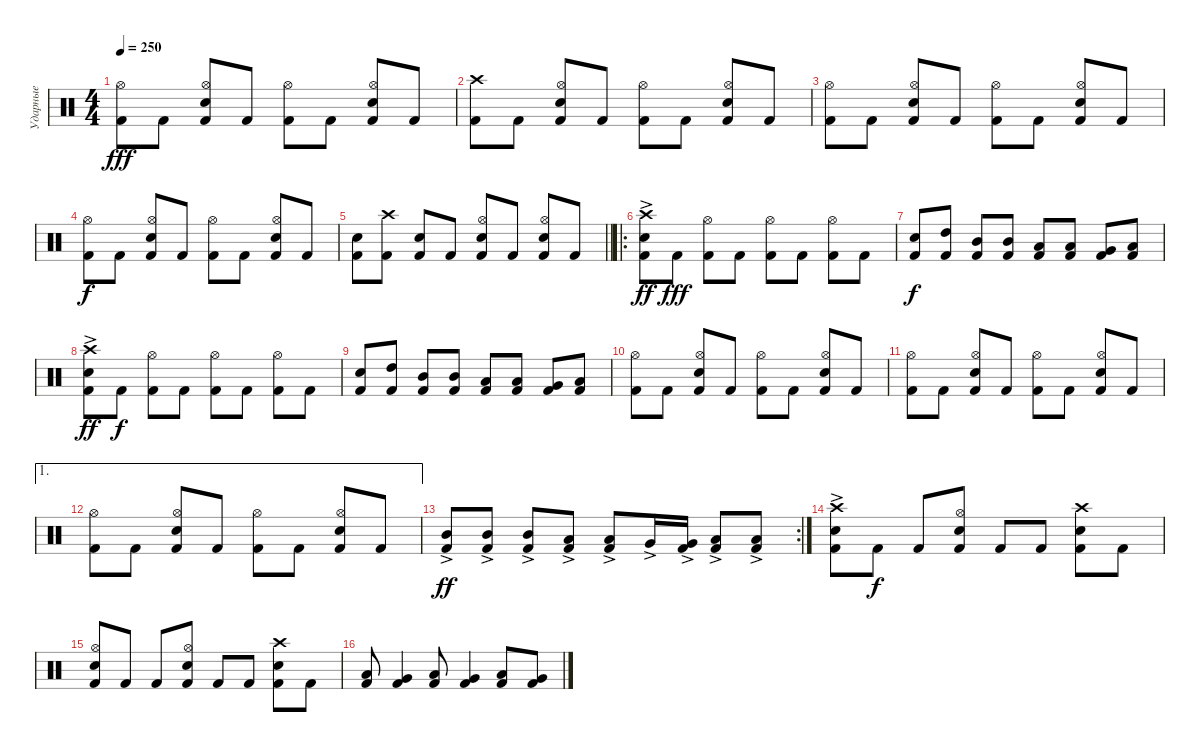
\track ("Ударные" "Ударные") {instrument percussion}
\staff {score}
\articulation defaults
\ts (4 4)
\tempo 250
\clef neutral
\ks c
("Kick (hit) 2" "Hi-Hat (open)").8{dy fff} "Kick (hit) 2".8 ("Kick (hit) 2" "Snare (hit) 2" "Hi-Hat (open)").8 "Kick (hit) 2".8 ("Kick (hit) 2" "Hi-Hat (open)").8 "Kick (hit) 2".8 ("Kick (hit) 2" "Snare (hit) 2" "Hi-Hat (open)").8 "Kick (hit) 2".8 |
("Kick (hit) 2" "Crash high (hit)").8 "Kick (hit) 2".8 ("Kick (hit) 2" "Snare (hit) 2" "Hi-Hat (open)").8 "Kick (hit) 2".8 ("Kick (hit) 2" "Hi-Hat (open)").8 "Kick (hit) 2".8 ("Kick (hit) 2" "Snare (hit) 2" "Hi-Hat (open)").8 "Kick (hit) 2".8 |
("Kick (hit) 2" "Hi-Hat (open)").8 "Kick (hit) 2".8 ("Kick (hit) 2" "Snare (hit) 2" "Hi-Hat (open)").8 "Kick (hit) 2".8 ("Kick (hit) 2" "Hi-Hat (open)").8 "Kick (hit) 2".8 ("Kick (hit) 2" "Snare (hit) 2" "Hi-Hat (open)").8 "Kick (hit) 2".8 |
("Kick (hit) 2" "Hi-Hat (open)").8{dy f} "Kick (hit) 2".8 ("Kick (hit) 2" "Snare (hit) 2" "Hi-Hat (open)").8 "Kick (hit) 2".8 ("Kick (hit) 2" "Hi-Hat (open)").8 "Kick (hit) 2".8 ("Kick (hit) 2" "Snare (hit) 2" "Hi-Hat (open)").8 "Kick (hit) 2".8 |
\barLineRight lightlight
("Kick (hit) 2" "Snare (hit) 2").8 ("Kick (hit) 2" "Crash high (hit)").8 ("Kick (hit) 2" "Snare (hit) 2").8 "Kick (hit) 2".8 ("Kick (hit) 2" "Snare (hit) 2" "Hi-Hat (open)").8 "Kick (hit) 2".8 ("Kick (hit) 2" "Snare (hit) 2" "Hi-Hat (open)").8 "Kick (hit) 2".8 |
\ro
("Kick (hit) 2" "Snare (hit) 2" "Crash high (hit)"{ac}).8{dy ff} "Kick (hit) 2".8{dy fff} ("Kick (hit) 2" "Hi-Hat (open)").8 "Kick (hit) 2".8 ("Kick (hit) 2" "Hi-Hat (open)").8 "Kick (hit) 2".8 ("Kick (hit) 2" "Hi-Hat (open)").8 "Kick (hit) 2".8 |
("Kick (hit) 2" "Snare (hit) 2").8{dy f} ("Kick (hit) 2" "High Tom (hit)").8 ("Kick (hit) 2" "Mid Tom (hit)").8 ("Kick (hit) 2" "Mid Tom (hit)").8 ("Kick (hit) 2" "Low Tom (hit)").8 ("Kick (hit) 2" "Low Tom (hit)").8 ("Kick (hit) 2" "Very Low Tom (hit)").8 ("Kick (hit) 2" "Low Floor Tom (hit)").8 |
("Kick (hit) 2" "Snare (hit) 2" "Crash high (hit)"{ac}).8{dy ff} "Kick (hit) 2".8{dy f} ("Kick (hit) 2" "Hi-Hat (open)").8 "Kick (hit) 2".8 ("Kick (hit) 2" "Hi-Hat (open)").8 "Kick (hit) 2".8 ("Kick (hit) 2" "Hi-Hat (open)").8 "Kick (hit) 2".8 |
("Kick (hit) 2" "Snare (hit) 2").8 ("Kick (hit) 2" "High Tom (hit)").8 ("Kick (hit) 2" "Mid Tom (hit)").8 ("Kick (hit) 2" "Mid Tom (hit)").8 ("Kick (hit) 2" "Low Tom (hit)").8 ("Kick (hit) 2" "Low Tom (hit)").8 ("Kick (hit) 2" "Very Low Tom (hit)").8 ("Kick (hit) 2" "Low Floor Tom (hit)").8 |
("Kick (hit) 2" "Hi-Hat (open)").8 "Kick (hit) 2".8 ("Kick (hit) 2" "Snare (hit) 2" "Hi-Hat (open)").8 "Kick (hit) 2".8 ("Kick (hit) 2" "Hi-Hat (open)").8 "Kick (hit) 2".8 ("Kick (hit) 2" "Snare (hit) 2" "Hi-Hat (open)").8 "Kick (hit) 2".8 |
("Kick (hit) 2" "Hi-Hat (open)").8 "Kick (hit) 2".8 ("Kick (hit) 2" "Snare (hit) 2" "Hi-Hat (open)").8 "Kick (hit) 2".8 ("Kick (hit) 2" "Hi-Hat (open)").8 "Kick (hit) 2".8 ("Kick (hit) 2" "Snare (hit) 2" "Hi-Hat (open)").8 "Kick (hit) 2".8 |
\ae 1
("Kick (hit) 2" "Hi-Hat (open)").8 "Kick (hit) 2".8 ("Kick (hit) 2" "Snare (hit) 2" "Hi-Hat (open)").8 "Kick (hit) 2".8 ("Kick (hit) 2" "Hi-Hat (open)").8 "Kick (hit) 2".8 ("Kick (hit) 2" "Snare (hit) 2" "Hi-Hat (open)").8 "Kick (hit) 2".8 |
\rc 2
("Kick (hit) 2" "Mid Tom (hit)"{ac}).8{dy ff} ("Kick (hit) 2" "Mid Tom (hit)"{ac}).8 ("Kick (hit) 2" "Mid Tom (hit)"{ac}).8 ("Kick (hit) 2" "Low Tom (hit)"{ac}).8 ("Kick (hit) 2" "Low Tom (hit)"{ac}).8 "Very Low Tom (hit)"{ac}.16 ("Kick (hit) 2" "Very Low Tom (hit)"{ac}).16 ("Kick (hit) 2" "Low Floor Tom (hit)"{ac}).8 ("Kick (hit) 2" "Low Floor Tom (hit)"{ac}).8 |
("Kick (hit) 2" "Snare (hit) 2" "Crash high (hit)"{ac}).8 "Kick (hit) 2".8{dy f} "Kick (hit) 2".8 ("Kick (hit) 2" "Snare (hit) 2" "Hi-Hat (open)").8 "Kick (hit) 2".8 "Kick (hit) 2".8 ("Kick (hit) 2" "Snare (hit) 2" "Crash high (hit)").8 "Kick (hit) 2".8 |
("Kick (hit) 2" "Snare (hit) 2" "Hi-Hat (open)").8 "Kick (hit) 2".8 "Kick (hit) 2".8 ("Kick (hit) 2" "Snare (hit) 2" "Hi-Hat (open)").8 "Kick (hit) 2".8 "Kick (hit) 2".8 ("Kick (hit) 2" "Snare (hit) 2" "Crash high (hit)").8 "Kick (hit) 2".8 |
("Kick (hit) 2" "Low Tom (hit)").8 ("Kick (hit) 2" "Very Low Tom (hit)").4 ("Kick (hit) 2" "Low Tom (hit)").8 ("Kick (hit) 2" "Very Low Tom (hit)").4 ("Kick (hit) 2" "Low Tom (hit)").8 ("Kick (hit) 2" "Very Low Tom (hit)").8
